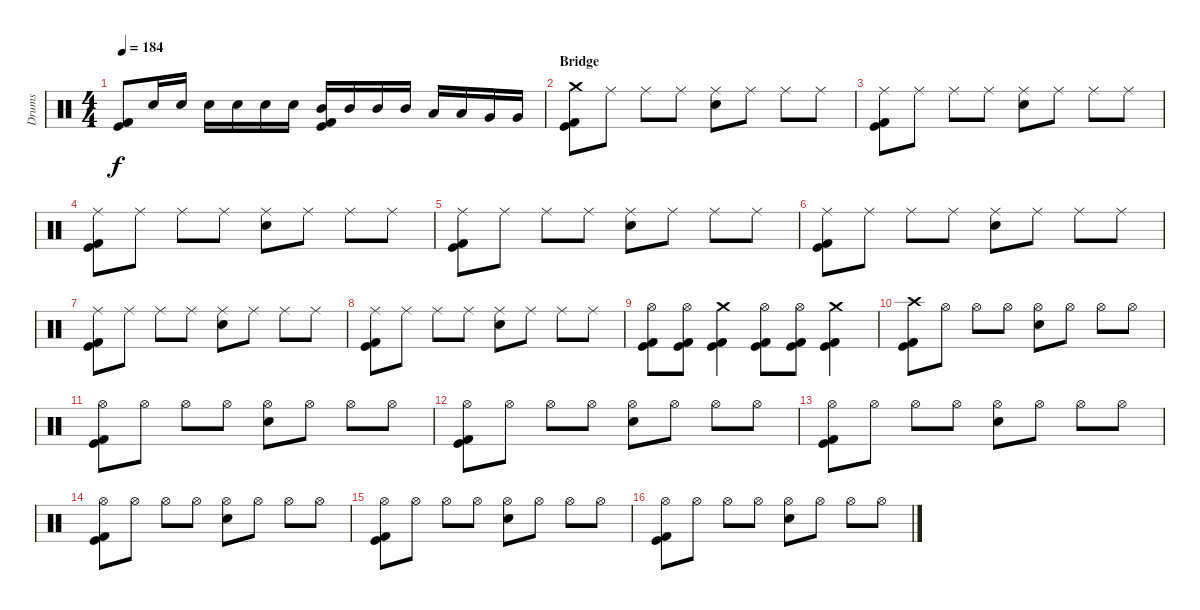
\track ("Drums" "Drums") {instrument percussion}
\staff {score}
\articulation defaults
\ts (4 4)
\tempo 184
\clef neutral
\ks c
("Kick (hit)" "Kick (hit) 2").8{dy f} "Electric Snare (hit)".16 "Electric Snare (hit)".16 "Electric Snare (hit)".16 "Electric Snare (hit)".16 "Electric Snare (hit)".16 "Electric Snare (hit)".16 ("Mid Tom (hit)" "Kick (hit)" "Kick (hit) 2").16 "Mid Tom (hit)".16 "Mid Tom (hit)".16 "Mid Tom (hit)".16 "Low Tom (hit)".16 "Low Tom (hit)".16 "Very Low Tom (hit)".16 "Very Low Tom (hit)".16 |
\section ("" "Bridge")
("Crash medium (hit)" "Kick (hit)" "Kick (hit) 2").8 "Ride (middle)".8 "Ride (middle)".8 "Ride (middle)".8 ("Ride (middle)" "Electric Snare (hit)").8 "Ride (middle)".8 "Ride (middle)".8 "Ride (middle)".8 |
("Ride (middle)" "Kick (hit)" "Kick (hit) 2").8 "Ride (middle)".8 "Ride (middle)".8 "Ride (middle)".8 ("Ride (middle)" "Electric Snare (hit)").8 "Ride (middle)".8 "Ride (middle)".8 "Ride (middle)".8 |
("Ride (middle)" "Kick (hit)" "Kick (hit) 2").8 "Ride (middle)".8 "Ride (middle)".8 "Ride (middle)".8 ("Ride (middle)" "Electric Snare (hit)").8 "Ride (middle)".8 "Ride (middle)".8 "Ride (middle)".8 |
("Ride (middle)" "Kick (hit)" "Kick (hit) 2").8 "Ride (middle)".8 "Ride (middle)".8 "Ride (middle)".8 ("Ride (middle)" "Electric Snare (hit)").8 "Ride (middle)".8 "Ride (middle)".8 "Ride (middle)".8 |
("Ride (middle)" "Kick (hit)" "Kick (hit) 2").8 "Ride (middle)".8 "Ride (middle)".8 "Ride (middle)".8 ("Ride (middle)" "Electric Snare (hit)").8 "Ride (middle)".8 "Ride (middle)".8 "Ride (middle)".8 |
("Ride (middle)" "Kick (hit)" "Kick (hit) 2").8 "Ride (middle)".8 "Ride (middle)".8 "Ride (middle)".8 ("Ride (middle)" "Electric Snare (hit)").8 "Ride (middle)".8 "Ride (middle)".8 "Ride (middle)".8 |
("Ride (middle)" "Kick (hit)" "Kick (hit) 2").8 "Ride (middle)".8 "Ride (middle)".8 "Ride (middle)".8 ("Ride (middle)" "Electric Snare (hit)").8 "Ride (middle)".8 "Ride (middle)".8 "Ride (middle)".8 |
("Hi-Hat (open)" "Kick (hit)" "Kick (hit) 2").8 ("Hi-Hat (open)" "Kick (hit)" "Kick (hit) 2").8 ("Crash medium (hit)" "Kick (hit)" "Kick (hit) 2").4 ("Hi-Hat (open)" "Kick (hit)" "Kick (hit) 2").8 ("Hi-Hat (open)" "Kick (hit)" "Kick (hit) 2").8 ("Crash medium (hit)" "Kick (hit)" "Kick (hit) 2").4 |
("Crash high (hit)" "Kick (hit)" "Kick (hit) 2").8 "Hi-Hat (open)".8 "Hi-Hat (open)".8 "Hi-Hat (open)".8 ("Hi-Hat (open)" "Electric Snare (hit)").8 "Hi-Hat (open)".8 "Hi-Hat (open)".8 "Hi-Hat (open)".8 |
("Hi-Hat (open)" "Kick (hit)" "Kick (hit) 2").8 "Hi-Hat (open)".8 "Hi-Hat (open)".8 "Hi-Hat (open)".8 ("Hi-Hat (open)" "Electric Snare (hit)").8 "Hi-Hat (open)".8 "Hi-Hat (open)".8 "Hi-Hat (open)".8 |
("Hi-Hat (open)" "Kick (hit)" "Kick (hit) 2").8 "Hi-Hat (open)".8 "Hi-Hat (open)".8 "Hi-Hat (open)".8 ("Hi-Hat (open)" "Electric Snare (hit)").8 "Hi-Hat (open)".8 "Hi-Hat (open)".8 "Hi-Hat (open)".8 |
("Hi-Hat (open)" "Kick (hit)" "Kick (hit) 2").8 "Hi-Hat (open)".8 "Hi-Hat (open)".8 "Hi-Hat (open)".8 ("Hi-Hat (open)" "Electric Snare (hit)").8 "Hi-Hat (open)".8 "Hi-Hat (open)".8 "Hi-Hat (open)".8 |
("Hi-Hat (open)" "Kick (hit)" "Kick (hit) 2").8 "Hi-Hat (open)".8 "Hi-Hat (open)".8 "Hi-Hat (open)".8 ("Hi-Hat (open)" "Electric Snare (hit)").8 "Hi-Hat (open)".8 "Hi-Hat (open)".8 "Hi-Hat (open)".8 |
("Hi-Hat (open)" "Kick (hit)" "Kick (hit) 2").8 "Hi-Hat (open)".8 "Hi-Hat (open)".8 "Hi-Hat (open)".8 ("Hi-Hat (open)" "Electric Snare (hit)").8 "Hi-Hat (open)".8 "Hi-Hat (open)".8 "Hi-Hat (open)".8 |
("Hi-Hat (open)" "Kick (hit)" "Kick (hit) 2").8 "Hi-Hat (open)".8 "Hi-Hat (open)".8 "Hi-Hat (open)".8 ("Hi-Hat (open)" "Electric Snare (hit)").8 "Hi-Hat (open)".8 "Hi-Hat (open)".8 "Hi-Hat (open)".8
